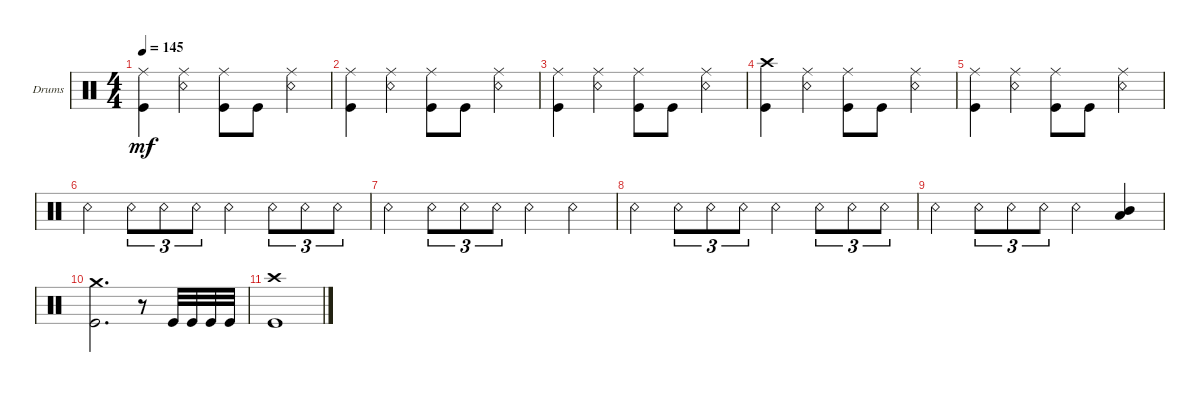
\defaultSystemsLayout 4
\bracketExtendMode groupsimilarinstruments
\firstSystemTrackNameOrientation horizontal
\otherSystemsTrackNameOrientation horizontal
\track ("Drumkit" "Drums") {instrument percussion}
\staff {score}
\articulation defaults
\ts (4 4)
\tempo 145
\clef neutral
\ks c
("Kick (hit)" "Ride (middle)").4{dy mf} ("Ride (middle)" "Snare (rim shot)").4 ("Kick (hit)" "Ride (middle)").8 "Kick (hit)".8 ("Ride (middle)" "Snare (rim shot)").4 |
("Kick (hit)" "Ride (middle)").4 ("Ride (middle)" "Snare (rim shot)").4 ("Kick (hit)" "Ride (middle)").8 "Kick (hit)".8 ("Ride (middle)" "Snare (rim shot)").4 |
("Kick (hit)" "Ride (middle)").4 ("Ride (middle)" "Snare (rim shot)").4 ("Kick (hit)" "Ride (middle)").8 "Kick (hit)".8 ("Ride (middle)" "Snare (rim shot)").4 |
("Kick (hit)" "Crash high (hit)").4 ("Ride (middle)" "Snare (rim shot)").4 ("Kick (hit)" "Ride (middle)").8 "Kick (hit)".8 ("Ride (middle)" "Snare (rim shot)").4 |
("Kick (hit)" "Ride (middle)").4 ("Ride (middle)" "Snare (rim shot)").4 ("Kick (hit)" "Ride (middle)").8 "Kick (hit)".8 ("Ride (middle)" "Snare (rim shot)").4 |
"Snare (rim shot)".4 "Snare (rim shot)".8{tu (3 2)} "Snare (rim shot)".8{tu (3 2)} "Snare (rim shot)".8{tu (3 2)} "Snare (rim shot)".4 "Snare (rim shot)".8{tu (3 2)} "Snare (rim shot)".8{tu (3 2)} "Snare (rim shot)".8{tu (3 2)} |
"Snare (rim shot)".4 "Snare (rim shot)".8{tu (3 2)} "Snare (rim shot)".8{tu (3 2)} "Snare (rim shot)".8{tu (3 2)} "Snare (rim shot)".4 "Snare (rim shot)".4 |
"Snare (rim shot)".4 "Snare (rim shot)".8{tu (3 2)} "Snare (rim shot)".8{tu (3 2)} "Snare (rim shot)".8{tu (3 2)} "Snare (rim shot)".4 "Snare (rim shot)".8{tu (3 2)} "Snare (rim shot)".8{tu (3 2)} "Snare (rim shot)".8{tu (3 2)} |
"Snare (rim shot)".4 "Snare (rim shot)".8{tu (3 2)} "Snare (rim shot)".8{tu (3 2)} "Snare (rim shot)".8{tu (3 2)} "Snare (rim shot)".4 ("Mid Tom (hit)" "Low Tom (hit)").4 |
("Kick (hit)" "Crash medium (hit)").2{d} r.8 "Kick (hit)".32 "Kick (hit)".32 "Kick (hit)".32 "Kick (hit)".32 |
("Kick (hit)" "Crash high (hit)").1
